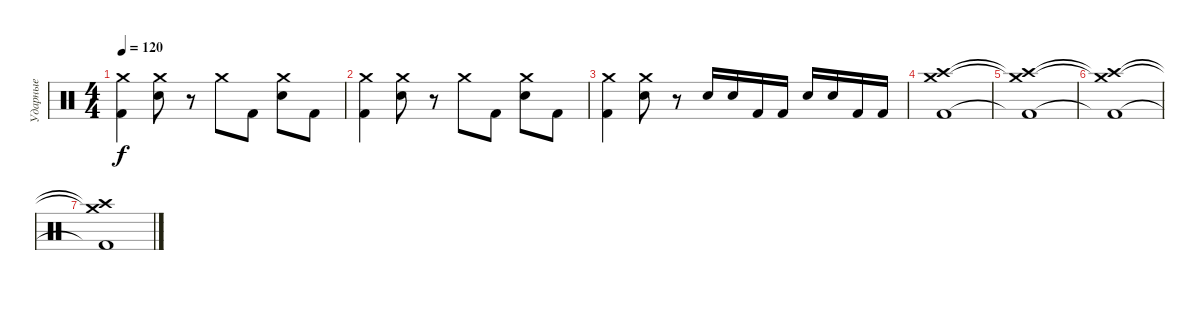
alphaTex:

\track ("Ударные" "Ударные") {instrument percussion}
\staff {score}
\articulation defaults
\ts (4 4)
\tempo 120
\clef neutral
\ks c
("Crash medium (hit)" "Kick (hit) 2").4{dy f} ("Crash medium (hit)" "Electric Snare (hit)").8 r.8 "Crash medium (hit)".8 "Kick (hit) 2".8 ("Crash medium (hit)" "Electric Snare (hit)").8 "Kick (hit) 2".8 |
("Crash medium (hit)" "Kick (hit) 2").4 ("Crash medium (hit)" "Electric Snare (hit)").8 r.8 "Crash medium (hit)".8 "Kick (hit) 2".8 ("Crash medium (hit)" "Electric Snare (hit)").8 "Kick (hit) 2".8 |
("Crash medium (hit)" "Kick (hit) 2").4 ("Crash medium (hit)" "Electric Snare (hit)").8 r.8 "Electric Snare (hit)".16 "Electric Snare (hit)".16 "Kick (hit) 2".16 "Kick (hit) 2".16 "Electric Snare (hit)".16 "Electric Snare (hit)".16 "Kick (hit) 2".16 "Kick (hit) 2".16 |
("Crash medium (hit)" "Crash high (hit)" "Kick (hit) 2").1 |
("Crash medium (hit)"{t} "Crash high (hit)"{t} "Kick (hit) 2"{t}).1 |
("Crash medium (hit)"{t} "Crash high (hit)"{t} "Kick (hit) 2"{t}).1 |
("Crash medium (hit)"{t} "Crash high (hit)"{t} "Kick (hit) 2"{t}).1
